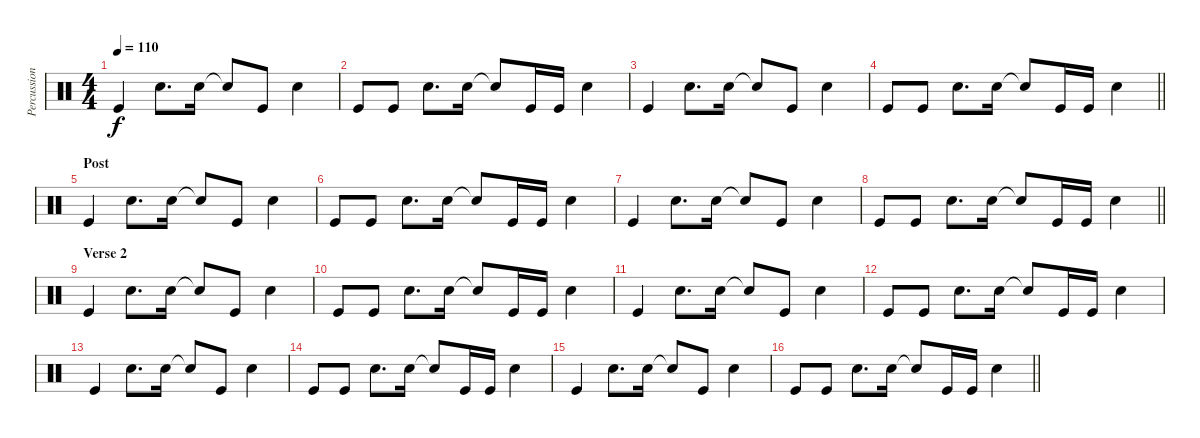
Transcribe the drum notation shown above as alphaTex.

\track ("Percussion" "Percussion") {instrument percussion}
\staff {score}
\articulation defaults
\ts (4 4)
\tempo 110
\clef neutral
\ks c "Kick (hit)".4{dy f} "Snare (hit) 2".8{d} "Snare (hit) 2".16 "Snare (hit) 2"{t}.8 "Kick (hit)".8 "Snare (hit) 2".4
|
"Kick (hit)".8 "Kick (hit)".8 "Snare (hit) 2".8{d} "Snare (hit) 2".16 "Snare (hit) 2"{t}.8 "Kick (hit)".16 "Kick (hit)".16 "Snare (hit) 2".4 |
"Kick (hit)".4 "Snare (hit) 2".8{d} "Snare (hit) 2".16 "Snare (hit) 2"{t}.8 "Kick (hit)".8 "Snare (hit) 2".4 |
\barLineRight lightlight "Kick (hit)".8 "Kick (hit)".8 "Snare (hit) 2".8{d} "Snare (hit) 2".16 "Snare (hit) 2"{t}.8 "Kick (hit)".16 "Kick (hit)".16 "Snare (hit) 2".4
|
\section ("" "Post")
"Kick (hit)".4 "Snare (hit) 2".8{d} "Snare (hit) 2".16 "Snare (hit) 2"{t}.8 "Kick (hit)".8 "Snare (hit) 2".4 |
"Kick (hit)".8 "Kick (hit)".8 "Snare (hit) 2".8{d} "Snare (hit) 2".16 "Snare (hit) 2"{t}.8 "Kick (hit)".16 "Kick (hit)".16 "Snare (hit) 2".4 |
"Kick (hit)".4 "Snare (hit) 2".8{d} "Snare (hit) 2".16 "Snare (hit) 2"{t}.8 "Kick (hit)".8 "Snare (hit) 2".4 |
\barLineRight lightlight "Kick (hit)".8 "Kick (hit)".8 "Snare (hit) 2".8{d} "Snare (hit) 2".16 "Snare (hit) 2"{t}.8 "Kick (hit)".16 "Kick (hit)".16 "Snare (hit) 2".4
|
\section ("" "Verse 2")
"Kick (hit)".4 "Snare (hit) 2".8{d} "Snare (hit) 2".16 "Snare (hit) 2"{t}.8 "Kick (hit)".8 "Snare (hit) 2".4 |
"Kick (hit)".8 "Kick (hit)".8 "Snare (hit) 2".8{d} "Snare (hit) 2".16 "Snare (hit) 2"{t}.8 "Kick (hit)".16 "Kick (hit)".16 "Snare (hit) 2".4 |
"Kick (hit)".4 "Snare (hit) 2".8{d} "Snare (hit) 2".16 "Snare (hit) 2"{t}.8 "Kick (hit)".8 "Snare (hit) 2".4 |
"Kick (hit)".8 "Kick (hit)".8 "Snare (hit) 2".8{d} "Snare (hit) 2".16 "Snare (hit) 2"{t}.8 "Kick (hit)".16 "Kick (hit)".16 "Snare (hit) 2".4 |
"Kick (hit)".4 "Snare (hit) 2".8{d} "Snare (hit) 2".16 "Snare (hit) 2"{t}.8 "Kick (hit)".8 "Snare (hit) 2".4 |
"Kick (hit)".8 "Kick (hit)".8 "Snare (hit) 2".8{d} "Snare (hit) 2".16 "Snare (hit) 2"{t}.8 "Kick (hit)".16 "Kick (hit)".16 "Snare (hit) 2".4 |
"Kick (hit)".4 "Snare (hit) 2".8{d} "Snare (hit) 2".16 "Snare (hit) 2"{t}.8 "Kick (hit)".8 "Snare (hit) 2".4 |
\barLineRight lightlight "Kick (hit)".8 "Kick (hit)".8 "Snare (hit) 2".8{d} "Snare (hit) 2".16 "Snare (hit) 2"{t}.8 "Kick (hit)".16 "Kick (hit)".16 "Snare (hit) 2".4
